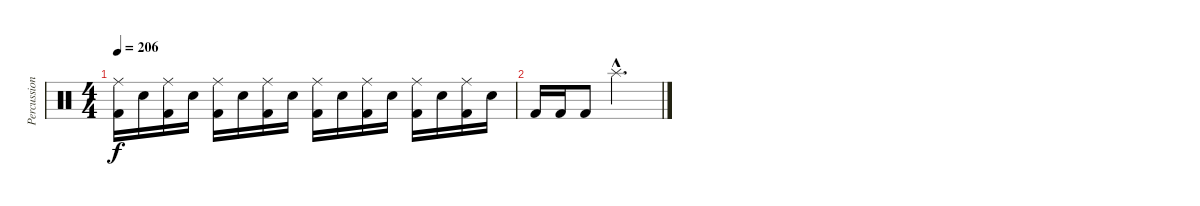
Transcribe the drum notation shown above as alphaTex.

\track ("Percussion" "Percussion") {instrument percussion}
\staff {score}
\articulation defaults
\ts (4 4)
\tempo 206
\clef neutral
\ks c
("Ride (middle)" "Kick (hit) 2").16{dy f} "Electric Snare (hit)".16 ("Ride (middle)" "Kick (hit) 2").16 "Electric Snare (hit)".16 ("Ride (middle)" "Kick (hit) 2").16 "Electric Snare (hit)".16 ("Ride (middle)" "Kick (hit) 2").16 "Electric Snare (hit)".16 ("Ride (middle)" "Kick (hit) 2").16 "Electric Snare (hit)".16 ("Ride (middle)" "Kick (hit) 2").16 "Electric Snare (hit)".16 ("Ride (middle)" "Kick (hit) 2").16 "Electric Snare (hit)".16 ("Ride (middle)" "Kick (hit) 2").16 "Electric Snare (hit)".16 |
"Kick (hit) 2".16 "Kick (hit) 2".16 "Kick (hit) 2".8 "Splash (hit)"{hac}.2{d}
